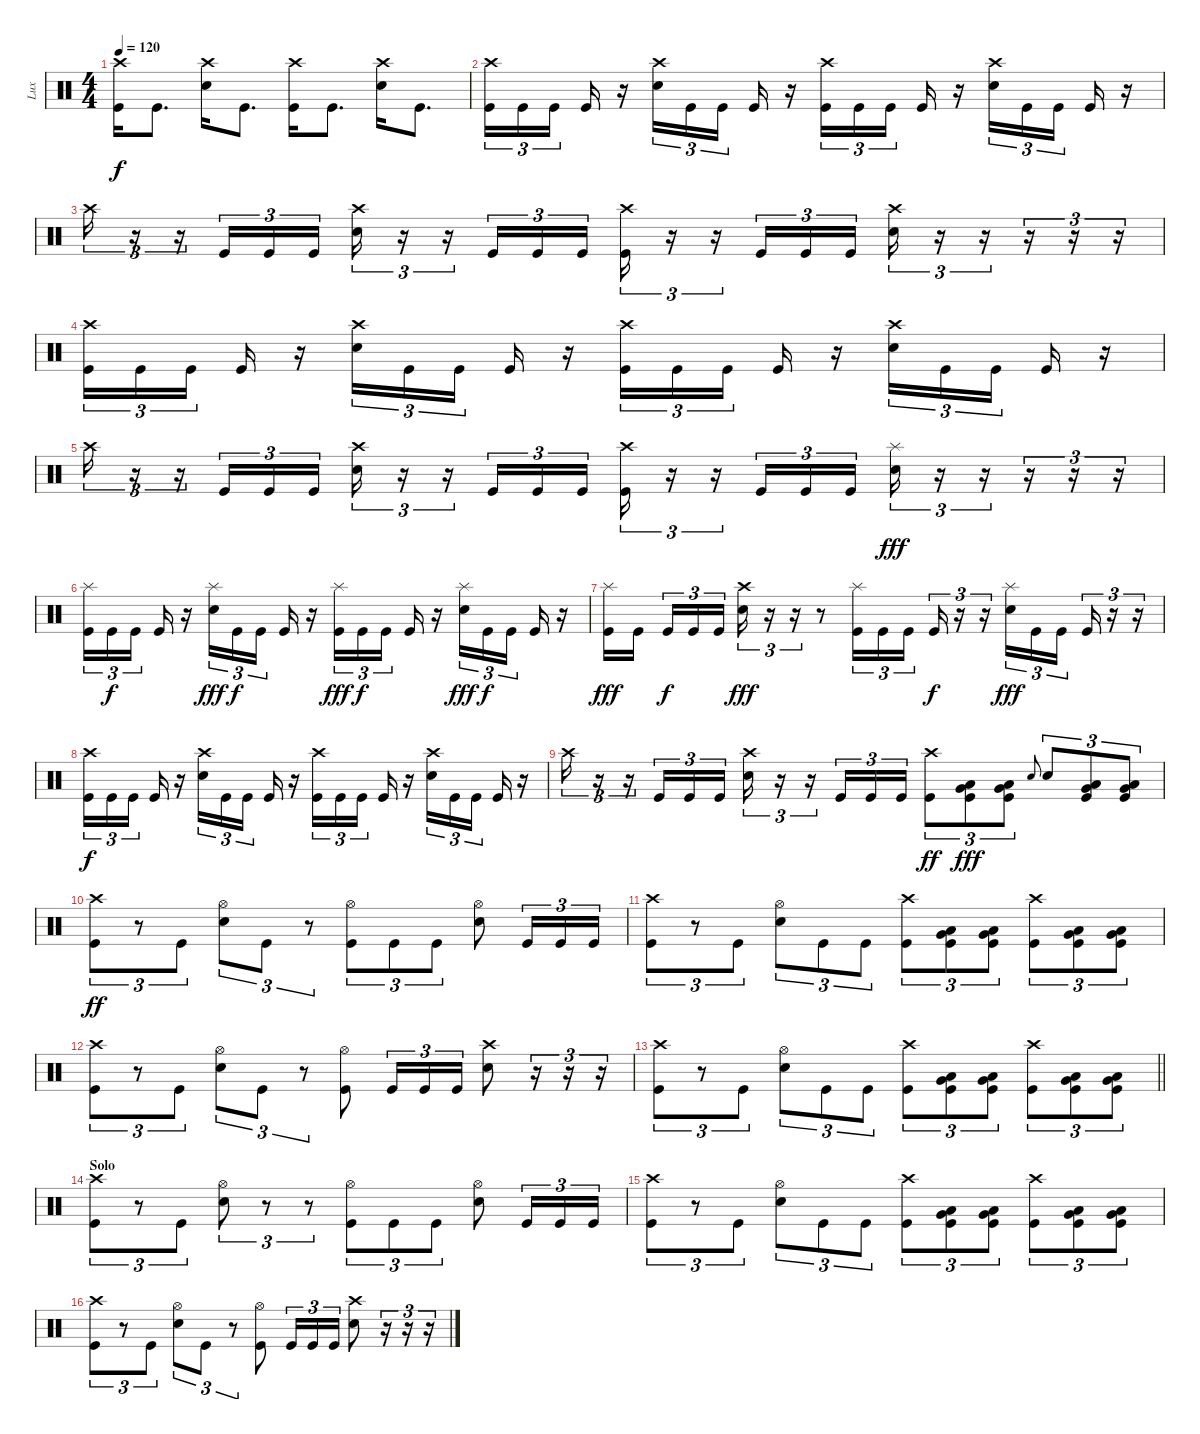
\track ("Lux" "Lux") {instrument percussion bank 32}
\staff {score}
\articulation defaults
\ts (4 4)
\tempo 120
\clef neutral
\ks c
("Crash high (hit)" "Kick (hit)").16{dy f} "Kick (hit)".8{d} ("Crash high (hit)" "Snare (hit) 2").16 "Kick (hit)".8{d} ("Crash high (hit)" "Kick (hit)").16 "Kick (hit)".8{d} ("Crash high (hit)" "Snare (hit) 2").16 "Kick (hit)".8{d} |
("Crash high (hit)" "Kick (hit)").16{tu (3 2)} "Kick (hit)".16{tu (3 2)} "Kick (hit)".16{tu (3 2) beam splitsecondary} "Kick (hit)".16 r.16 ("Crash high (hit)" "Snare (hit) 2").16{tu (3 2)} "Kick (hit)".16{tu (3 2)} "Kick (hit)".16{tu (3 2) beam splitsecondary} "Kick (hit)".16 r.16 ("Crash high (hit)" "Kick (hit)").16{tu (3 2)} "Kick (hit)".16{tu (3 2)} "Kick (hit)".16{tu (3 2) beam splitsecondary} "Kick (hit)".16 r.16 ("Crash high (hit)" "Snare (hit) 2").16{tu (3 2)} "Kick (hit)".16{tu (3 2)} "Kick (hit)".16{tu (3 2) beam splitsecondary} "Kick (hit)".16 r.16 |
"Crash high (hit)".16{tu (3 2)} r.16{tu (3 2)} r.16{tu (3 2)} "Kick (hit)".16{tu (3 2)} "Kick (hit)".16{tu (3 2)} "Kick (hit)".16{tu (3 2)} ("Crash high (hit)" "Snare (hit) 2").16{tu (3 2)} r.16{tu (3 2)} r.16{tu (3 2)} "Kick (hit)".16{tu (3 2)} "Kick (hit)".16{tu (3 2)} "Kick (hit)".16{tu (3 2)} ("Crash high (hit)" "Kick (hit)").16{tu (3 2)} r.16{tu (3 2)} r.16{tu (3 2)} "Kick (hit)".16{tu (3 2)} "Kick (hit)".16{tu (3 2)} "Kick (hit)".16{tu (3 2)} ("Crash high (hit)" "Snare (hit) 2").16{tu (3 2)} r.16{tu (3 2)} r.16{tu (3 2)} r.16{tu (3 2)} r.16{tu (3 2)} r.16{tu (3 2)} |
("Crash high (hit)" "Kick (hit)").16{tu (3 2)} "Kick (hit)".16{tu (3 2)} "Kick (hit)".16{tu (3 2) beam splitsecondary} "Kick (hit)".16 r.16 ("Crash high (hit)" "Snare (hit) 2").16{tu (3 2)} "Kick (hit)".16{tu (3 2)} "Kick (hit)".16{tu (3 2) beam splitsecondary} "Kick (hit)".16 r.16 ("Crash high (hit)" "Kick (hit)").16{tu (3 2)} "Kick (hit)".16{tu (3 2)} "Kick (hit)".16{tu (3 2) beam splitsecondary} "Kick (hit)".16 r.16 ("Crash high (hit)" "Snare (hit) 2").16{tu (3 2)} "Kick (hit)".16{tu (3 2)} "Kick (hit)".16{tu (3 2) beam splitsecondary} "Kick (hit)".16 r.16 |
"Crash high (hit)".16{tu (3 2)} r.16{tu (3 2)} r.16{tu (3 2)} "Kick (hit)".16{tu (3 2)} "Kick (hit)".16{tu (3 2)} "Kick (hit)".16{tu (3 2)} ("Crash high (hit)" "Snare (hit) 2").16{tu (3 2)} r.16{tu (3 2)} r.16{tu (3 2)} "Kick (hit)".16{tu (3 2)} "Kick (hit)".16{tu (3 2)} "Kick (hit)".16{tu (3 2)} ("Crash high (hit)" "Kick (hit)").16{tu (3 2)} r.16{tu (3 2)} r.16{tu (3 2)} "Kick (hit)".16{tu (3 2)} "Kick (hit)".16{tu (3 2)} "Kick (hit)".16{tu (3 2)} ("Splash (hit)" "Snare (hit) 2").16{tu (3 2) dy fff} r.16{tu (3 2)} r.16{tu (3 2)} r.16{tu (3 2)} r.16{tu (3 2)} r.16{tu (3 2)} |
("Splash (hit)" "Kick (hit)").16{tu (3 2)} "Kick (hit)".16{tu (3 2) dy f} "Kick (hit)".16{tu (3 2) beam splitsecondary} "Kick (hit)".16 r.16 ("Splash (hit)" "Snare (hit) 2").16{tu (3 2) dy fff} "Kick (hit)".16{tu (3 2) dy f} "Kick (hit)".16{tu (3 2) beam splitsecondary} "Kick (hit)".16 r.16 ("Splash (hit)" "Kick (hit)").16{tu (3 2) dy fff} "Kick (hit)".16{tu (3 2) dy f} "Kick (hit)".16{tu (3 2) beam splitsecondary} "Kick (hit)".16 r.16 ("Splash (hit)" "Snare (hit) 2").16{tu (3 2) dy fff} "Kick (hit)".16{tu (3 2) dy f} "Kick (hit)".16{tu (3 2) beam splitsecondary} "Kick (hit)".16 r.16 |
("Splash (hit)" "Kick (hit)").16{dy fff} "Kick (hit)".16{beam splitsecondary} "Kick (hit)".16{tu (3 2) dy f} "Kick (hit)".16{tu (3 2)} "Kick (hit)".16{tu (3 2)} ("Crash high (hit)" "Snare (hit) 2").16{tu (3 2) dy fff} r.16{tu (3 2)} r.16{tu (3 2)} r.8 ("Splash (hit)" "Kick (hit)").16{tu (3 2)} "Kick (hit)".16{tu (3 2)} "Kick (hit)".16{tu (3 2) beam splitsecondary} "Kick (hit)".16{tu (3 2) dy f} r.16{tu (3 2)} r.16{tu (3 2)} ("Splash (hit)" "Snare (hit) 2").16{tu (3 2) dy fff} "Kick (hit)".16{tu (3 2)} "Kick (hit)".16{tu (3 2) beam splitsecondary} "Kick (hit)".16{tu (3 2)} r.16{tu (3 2)} r.16{tu (3 2)} |
("Crash high (hit)" "Kick (hit)").16{tu (3 2) dy f} "Kick (hit)".16{tu (3 2)} "Kick (hit)".16{tu (3 2) beam splitsecondary} "Kick (hit)".16 r.16 ("Crash high (hit)" "Snare (hit) 2").16{tu (3 2)} "Kick (hit)".16{tu (3 2)} "Kick (hit)".16{tu (3 2) beam splitsecondary} "Kick (hit)".16 r.16 ("Crash high (hit)" "Kick (hit)").16{tu (3 2)} "Kick (hit)".16{tu (3 2)} "Kick (hit)".16{tu (3 2) beam splitsecondary} "Kick (hit)".16 r.16 ("Crash high (hit)" "Snare (hit) 2").16{tu (3 2)} "Kick (hit)".16{tu (3 2)} "Kick (hit)".16{tu (3 2) beam splitsecondary} "Kick (hit)".16 r.16 |
"Crash high (hit)".16{tu (3 2)} r.16{tu (3 2)} r.16{tu (3 2)} "Kick (hit)".16{tu (3 2)} "Kick (hit)".16{tu (3 2)} "Kick (hit)".16{tu (3 2)} ("Crash high (hit)" "Snare (hit) 2").16{tu (3 2)} r.16{tu (3 2)} r.16{tu (3 2)} "Kick (hit)".16{tu (3 2)} "Kick (hit)".16{tu (3 2)} "Kick (hit)".16{tu (3 2)} ("Crash high (hit)" "Kick (hit)").8{tu (3 2) dy ff} ("Low Tom (hit)" "Very Low Tom (hit)" "Kick (hit)").8{tu (3 2) dy fff} ("Very Low Tom (hit)" "Low Floor Tom (hit)" "Kick (hit)").8{tu (3 2)} "Snare (hit) 2".8{gr onbeat} "Snare (hit) 2".8{tu (3 2)} ("Low Tom (hit)" "Very Low Tom (hit)" "Kick (hit)").8{tu (3 2)} ("Very Low Tom (hit)" "Low Floor Tom (hit)" "Kick (hit)").8{tu (3 2)} |
("Crash high (hit)" "Kick (hit)").8{tu (3 2) dy ff} r.8{tu (3 2)} "Kick (hit)".8{tu (3 2)} ("Hi-Hat (open)" "Snare (hit) 2").8{tu (3 2)} "Kick (hit)".8{tu (3 2)} r.8{tu (3 2)} ("Hi-Hat (open)" "Kick (hit)").8{tu (3 2)} "Kick (hit)".8{tu (3 2)} "Kick (hit)".8{tu (3 2)} ("Hi-Hat (open)" "Snare (hit) 2").8 "Kick (hit)".16{tu (3 2)} "Kick (hit)".16{tu (3 2)} "Kick (hit)".16{tu (3 2)} |
("Crash high (hit)" "Kick (hit)").8{tu (3 2)} r.8{tu (3 2)} "Kick (hit)".8{tu (3 2)} ("Hi-Hat (open)" "Snare (hit) 2").8{tu (3 2)} "Kick (hit)".8{tu (3 2)} "Kick (hit)".8{tu (3 2)} ("Crash high (hit)" "Kick (hit)").8{tu (3 2)} ("Low Floor Tom (hit)" "Very Low Tom (hit)" "Kick (hit)").8{tu (3 2)} ("Low Floor Tom (hit)" "Very Low Tom (hit)" "Kick (hit)").8{tu (3 2)} ("Crash high (hit)" "Kick (hit)").8{tu (3 2)} ("Low Floor Tom (hit)" "Very Low Tom (hit)" "Kick (hit)").8{tu (3 2)} ("Low Floor Tom (hit)" "Very Low Tom (hit)" "Kick (hit)").8{tu (3 2)} |
("Crash high (hit)" "Kick (hit)").8{tu (3 2)} r.8{tu (3 2)} "Kick (hit)".8{tu (3 2)} ("Hi-Hat (open)" "Snare (hit) 2").8{tu (3 2)} "Kick (hit)".8{tu (3 2)} r.8{tu (3 2)} ("Hi-Hat (open)" "Kick (hit)").8 "Kick (hit)".16{tu (3 2)} "Kick (hit)".16{tu (3 2)} "Kick (hit)".16{tu (3 2)} ("Crash high (hit)" "Snare (hit) 2").8 r.16{tu (3 2)} r.16{tu (3 2)} r.16{tu (3 2)} |
\barLineRight lightlight
("Crash high (hit)" "Kick (hit)").8{tu (3 2)} r.8{tu (3 2)} "Kick (hit)".8{tu (3 2)} ("Hi-Hat (open)" "Snare (hit) 2").8{tu (3 2)} "Kick (hit)".8{tu (3 2)} "Kick (hit)".8{tu (3 2)} ("Crash high (hit)" "Kick (hit)").8{tu (3 2)} ("Low Floor Tom (hit)" "Very Low Tom (hit)" "Kick (hit)").8{tu (3 2)} ("Low Floor Tom (hit)" "Very Low Tom (hit)" "Kick (hit)").8{tu (3 2)} ("Crash high (hit)" "Kick (hit)").8{tu (3 2)} ("Low Floor Tom (hit)" "Very Low Tom (hit)" "Kick (hit)").8{tu (3 2)} ("Low Floor Tom (hit)" "Very Low Tom (hit)" "Kick (hit)").8{tu (3 2)} |
\section ("" "Solo")
("Crash high (hit)" "Kick (hit)").8{tu (3 2)} r.8{tu (3 2)} "Kick (hit)".8{tu (3 2)} ("Hi-Hat (open)" "Snare (hit) 2").8{tu (3 2)} r.8{tu (3 2)} r.8{tu (3 2)} ("Hi-Hat (open)" "Kick (hit)").8{tu (3 2)} "Kick (hit)".8{tu (3 2)} "Kick (hit)".8{tu (3 2)} ("Hi-Hat (open)" "Snare (hit) 2").8 "Kick (hit)".16{tu (3 2)} "Kick (hit)".16{tu (3 2)} "Kick (hit)".16{tu (3 2)} |
("Crash high (hit)" "Kick (hit)").8{tu (3 2)} r.8{tu (3 2)} "Kick (hit)".8{tu (3 2)} ("Hi-Hat (open)" "Snare (hit) 2").8{tu (3 2)} "Kick (hit)".8{tu (3 2)} "Kick (hit)".8{tu (3 2)} ("Crash high (hit)" "Kick (hit)").8{tu (3 2)} ("Low Floor Tom (hit)" "Very Low Tom (hit)" "Kick (hit)").8{tu (3 2)} ("Low Floor Tom (hit)" "Very Low Tom (hit)" "Kick (hit)").8{tu (3 2)} ("Crash high (hit)" "Kick (hit)").8{tu (3 2)} ("Low Floor Tom (hit)" "Very Low Tom (hit)" "Kick (hit)").8{tu (3 2)} ("Low Floor Tom (hit)" "Very Low Tom (hit)" "Kick (hit)").8{tu (3 2)} |
("Crash high (hit)" "Kick (hit)").8{tu (3 2)} r.8{tu (3 2)} "Kick (hit)".8{tu (3 2)} ("Hi-Hat (open)" "Snare (hit) 2").8{tu (3 2)} "Kick (hit)".8{tu (3 2)} r.8{tu (3 2)} ("Hi-Hat (open)" "Kick (hit)").8 "Kick (hit)".16{tu (3 2)} "Kick (hit)".16{tu (3 2)} "Kick (hit)".16{tu (3 2)} ("Crash high (hit)" "Snare (hit) 2").8 r.16{tu (3 2)} r.16{tu (3 2)} r.16{tu (3 2)}
